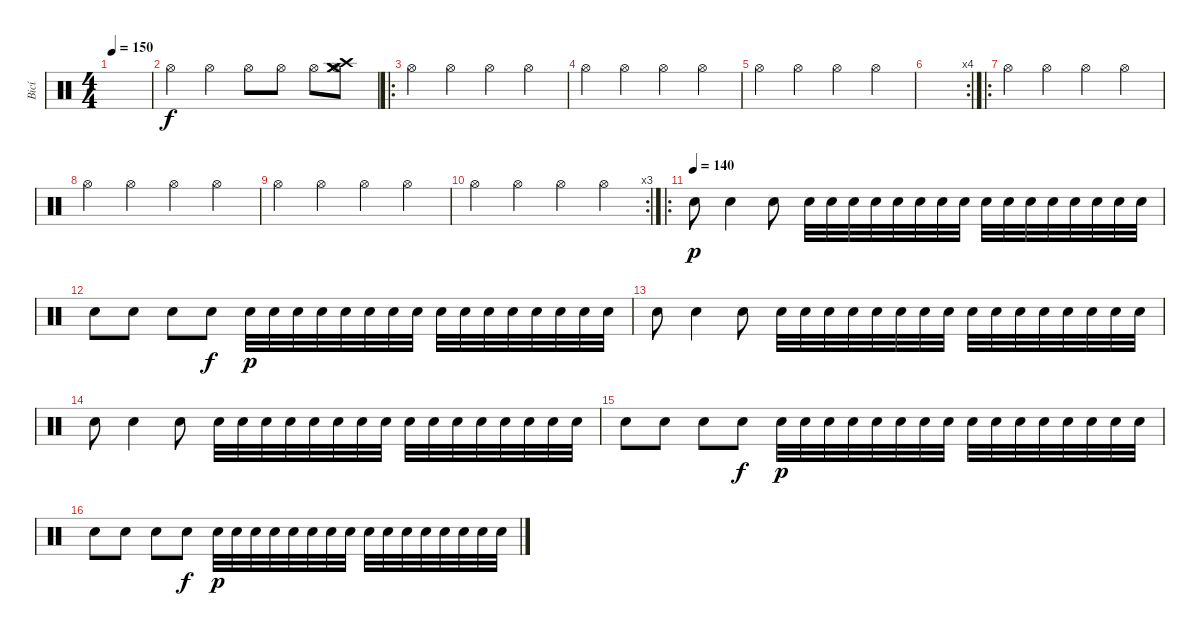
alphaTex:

\track ("Bicí" "Bicí") {instrument percussion}
\staff {score}
\articulation defaults
\ts (4 4)
\tempo 150
\clef neutral
\ks c
|
"Hi-Hat (open)".4 "Hi-Hat (open)".4 "Hi-Hat (open)".8 "Hi-Hat (open)".8 "Hi-Hat (open)".8 ("Crash high (hit)" "Crash medium (hit)" "Crash medium (hit)" "Hi-Hat (open)").8 |
\ro "Hi-Hat (open)".4 "Hi-Hat (open)".4 "Hi-Hat (open)".4 "Hi-Hat (open)".4
|
"Hi-Hat (open)".4 "Hi-Hat (open)".4 "Hi-Hat (open)".4 "Hi-Hat (open)".4 |
"Hi-Hat (open)".4 "Hi-Hat (open)".4 "Hi-Hat (open)".4 "Hi-Hat (open)".4 |
\rc 4
|
\ro "Hi-Hat (open)".4 "Hi-Hat (open)".4 "Hi-Hat (open)".4 "Hi-Hat (open)".4
|
"Hi-Hat (open)".4 "Hi-Hat (open)".4 "Hi-Hat (open)".4 "Hi-Hat (open)".4 |
"Hi-Hat (open)".4 "Hi-Hat (open)".4 "Hi-Hat (open)".4 "Hi-Hat (open)".4 |
\rc 3 "Hi-Hat (open)".4 "Hi-Hat (open)".4 "Hi-Hat (open)".4 "Hi-Hat (open)".4
|
\ro
\tempo (140)
"Electric Snare (hit)".8{dy p} "Electric Snare (hit)".4 "Electric Snare (hit)".8 "Electric Snare (hit)".32 "Electric Snare (hit)".32 "Electric Snare (hit)".32 "Electric Snare (hit)".32 "Electric Snare (hit)".32 "Electric Snare (hit)".32 "Electric Snare (hit)".32 "Electric Snare (hit)".32 "Electric Snare (hit)".32 "Electric Snare (hit)".32 "Electric Snare (hit)".32 "Electric Snare (hit)".32 "Electric Snare (hit)".32 "Electric Snare (hit)".32 "Electric Snare (hit)".32 "Electric Snare (hit)".32 |
"Electric Snare (hit)".8 "Electric Snare (hit)".8 "Electric Snare (hit)".8 "Electric Snare (hit)".8{dy f} "Electric Snare (hit)".32{dy p} "Electric Snare (hit)".32 "Electric Snare (hit)".32 "Electric Snare (hit)".32 "Electric Snare (hit)".32 "Electric Snare (hit)".32 "Electric Snare (hit)".32 "Electric Snare (hit)".32 "Electric Snare (hit)".32 "Electric Snare (hit)".32 "Electric Snare (hit)".32 "Electric Snare (hit)".32 "Electric Snare (hit)".32 "Electric Snare (hit)".32 "Electric Snare (hit)".32 "Electric Snare (hit)".32 |
"Electric Snare (hit)".8 "Electric Snare (hit)".4 "Electric Snare (hit)".8 "Electric Snare (hit)".32 "Electric Snare (hit)".32 "Electric Snare (hit)".32 "Electric Snare (hit)".32 "Electric Snare (hit)".32 "Electric Snare (hit)".32 "Electric Snare (hit)".32 "Electric Snare (hit)".32 "Electric Snare (hit)".32 "Electric Snare (hit)".32 "Electric Snare (hit)".32 "Electric Snare (hit)".32 "Electric Snare (hit)".32 "Electric Snare (hit)".32 "Electric Snare (hit)".32 "Electric Snare (hit)".32 |
"Electric Snare (hit)".8 "Electric Snare (hit)".4 "Electric Snare (hit)".8 "Electric Snare (hit)".32 "Electric Snare (hit)".32 "Electric Snare (hit)".32 "Electric Snare (hit)".32 "Electric Snare (hit)".32 "Electric Snare (hit)".32 "Electric Snare (hit)".32 "Electric Snare (hit)".32 "Electric Snare (hit)".32 "Electric Snare (hit)".32 "Electric Snare (hit)".32 "Electric Snare (hit)".32 "Electric Snare (hit)".32 "Electric Snare (hit)".32 "Electric Snare (hit)".32 "Electric Snare (hit)".32 |
"Electric Snare (hit)".8 "Electric Snare (hit)".8 "Electric Snare (hit)".8 "Electric Snare (hit)".8{dy f} "Electric Snare (hit)".32{dy p} "Electric Snare (hit)".32 "Electric Snare (hit)".32 "Electric Snare (hit)".32 "Electric Snare (hit)".32 "Electric Snare (hit)".32 "Electric Snare (hit)".32 "Electric Snare (hit)".32 "Electric Snare (hit)".32 "Electric Snare (hit)".32 "Electric Snare (hit)".32 "Electric Snare (hit)".32 "Electric Snare (hit)".32 "Electric Snare (hit)".32 "Electric Snare (hit)".32 "Electric Snare (hit)".32 |
"Electric Snare (hit)".8 "Electric Snare (hit)".8 "Electric Snare (hit)".8 "Electric Snare (hit)".8{dy f} "Electric Snare (hit)".32{dy p} "Electric Snare (hit)".32 "Electric Snare (hit)".32 "Electric Snare (hit)".32 "Electric Snare (hit)".32 "Electric Snare (hit)".32 "Electric Snare (hit)".32 "Electric Snare (hit)".32 "Electric Snare (hit)".32 "Electric Snare (hit)".32 "Electric Snare (hit)".32 "Electric Snare (hit)".32 "Electric Snare (hit)".32 "Electric Snare (hit)".32 "Electric Snare (hit)".32 "Electric Snare (hit)".32
